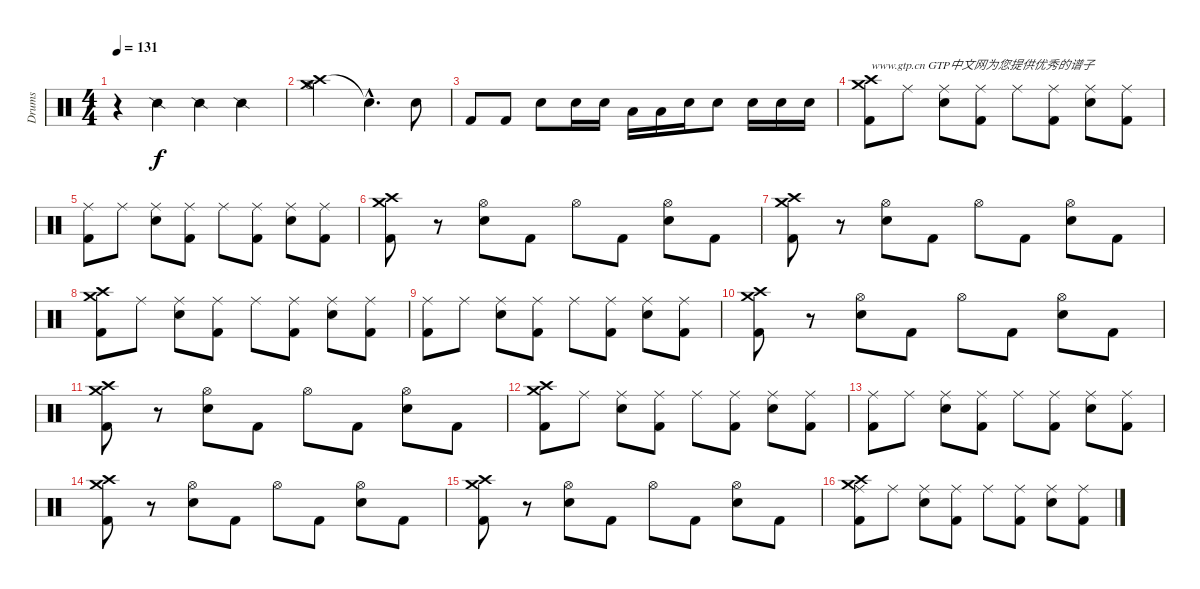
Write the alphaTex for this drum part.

\track ("Drums" "Drums") {instrument percussion}
\staff {score}
\articulation defaults
\ts (4 4)
\tempo 131
\clef neutral
\ks c
r.4{dy f} "Snare (side stick) 2".4 "Snare (side stick) 2".4 "Snare (side stick) 2".4 |
("Crash high (hit)" "Crash medium (hit)" "Hi-Hat (open)").2 "Snare (hit)"{hac t}.4{d} "Snare (hit) 2".8 |
"Kick (hit) 2".8 "Kick (hit) 2".8 "Snare (hit) 2".8 "Snare (hit) 2".16 "Snare (hit) 2".16 "Low Tom (hit)".16 "Low Tom (hit)".16 "Snare (hit) 2".16 "Snare (hit) 2".8 "Snare (hit) 2".16 "Snare (hit) 2".16 "Snare (hit) 2".16 |
("Crash high (hit)" "Crash medium (hit)" "Kick (hit) 2").8{txt "www.gtp.cn GTP中文网为您提供优秀的谱子"} "Ride (middle)".8 ("Ride (middle)" "Snare (hit) 2").8 ("Ride (middle)" "Kick (hit) 2").8 "Ride (middle)".8 ("Ride (middle)" "Kick (hit) 2").8 ("Ride (middle)" "Snare (hit) 2").8 ("Ride (middle)" "Kick (hit) 2").8 |
("Ride (middle)" "Kick (hit) 2").8 "Ride (middle)".8 ("Ride (middle)" "Snare (hit) 2").8 ("Ride (middle)" "Kick (hit) 2").8 "Ride (middle)".8 ("Ride (middle)" "Kick (hit) 2").8 ("Ride (middle)" "Snare (hit) 2").8 ("Ride (middle)" "Kick (hit) 2").8 |
("Crash high (hit)" "Crash medium (hit)" "Kick (hit) 2").8 r.8 ("Hi-Hat (open)" "Snare (hit) 2").8 "Kick (hit) 2".8 "Hi-Hat (open)".8 "Kick (hit) 2".8 ("Hi-Hat (open)" "Snare (hit) 2").8 "Kick (hit) 2".8 |
("Crash high (hit)" "Crash medium (hit)" "Kick (hit) 2").8 r.8 ("Hi-Hat (open)" "Snare (hit) 2").8 "Kick (hit) 2".8 "Hi-Hat (open)".8 "Kick (hit) 2".8 ("Hi-Hat (open)" "Snare (hit) 2").8 "Kick (hit) 2".8 |
("Crash high (hit)" "Crash medium (hit)" "Kick (hit) 2").8 "Ride (middle)".8 ("Ride (middle)" "Snare (hit) 2").8 ("Ride (middle)" "Kick (hit) 2").8 "Ride (middle)".8 ("Ride (middle)" "Kick (hit) 2").8 ("Ride (middle)" "Snare (hit) 2").8 ("Ride (middle)" "Kick (hit) 2").8 |
("Ride (middle)" "Kick (hit) 2").8 "Ride (middle)".8 ("Ride (middle)" "Snare (hit) 2").8 ("Ride (middle)" "Kick (hit) 2").8 "Ride (middle)".8 ("Ride (middle)" "Kick (hit) 2").8 ("Ride (middle)" "Snare (hit) 2").8 ("Ride (middle)" "Kick (hit) 2").8 |
("Crash high (hit)" "Crash medium (hit)" "Kick (hit) 2").8 r.8 ("Hi-Hat (open)" "Snare (hit) 2").8 "Kick (hit) 2".8 "Hi-Hat (open)".8 "Kick (hit) 2".8 ("Hi-Hat (open)" "Snare (hit) 2").8 "Kick (hit) 2".8 |
("Crash high (hit)" "Crash medium (hit)" "Kick (hit) 2").8 r.8 ("Hi-Hat (open)" "Snare (hit) 2").8 "Kick (hit) 2".8 "Hi-Hat (open)".8 "Kick (hit) 2".8 ("Hi-Hat (open)" "Snare (hit) 2").8 "Kick (hit) 2".8 |
("Crash high (hit)" "Crash medium (hit)" "Kick (hit) 2").8 "Ride (middle)".8 ("Ride (middle)" "Snare (hit) 2").8 ("Ride (middle)" "Kick (hit) 2").8 "Ride (middle)".8 ("Ride (middle)" "Kick (hit) 2").8 ("Ride (middle)" "Snare (hit) 2").8 ("Ride (middle)" "Kick (hit) 2").8 |
("Ride (middle)" "Kick (hit) 2").8 "Ride (middle)".8 ("Ride (middle)" "Snare (hit) 2").8 ("Ride (middle)" "Kick (hit) 2").8 "Ride (middle)".8 ("Ride (middle)" "Kick (hit) 2").8 ("Ride (middle)" "Snare (hit) 2").8 ("Ride (middle)" "Kick (hit) 2").8 |
("Crash high (hit)" "Crash medium (hit)" "Kick (hit) 2").8 r.8 ("Hi-Hat (open)" "Snare (hit) 2").8 "Kick (hit) 2".8 "Hi-Hat (open)".8 "Kick (hit) 2".8 ("Hi-Hat (open)" "Snare (hit) 2").8 "Kick (hit) 2".8 |
("Crash high (hit)" "Crash medium (hit)" "Kick (hit) 2").8 r.8 ("Hi-Hat (open)" "Snare (hit) 2").8 "Kick (hit) 2".8 "Hi-Hat (open)".8 "Kick (hit) 2".8 ("Hi-Hat (open)" "Snare (hit) 2").8 "Kick (hit) 2".8 |
("Crash medium (hit)" "Crash high (hit)" "Ride (middle)" "Kick (hit) 2").8 "Ride (middle)".8 ("Ride (middle)" "Snare (hit) 2").8 ("Ride (middle)" "Kick (hit) 2").8 "Ride (middle)".8 ("Ride (middle)" "Kick (hit) 2").8 ("Ride (middle)" "Snare (hit) 2").8 ("Ride (middle)" "Kick (hit) 2").8
